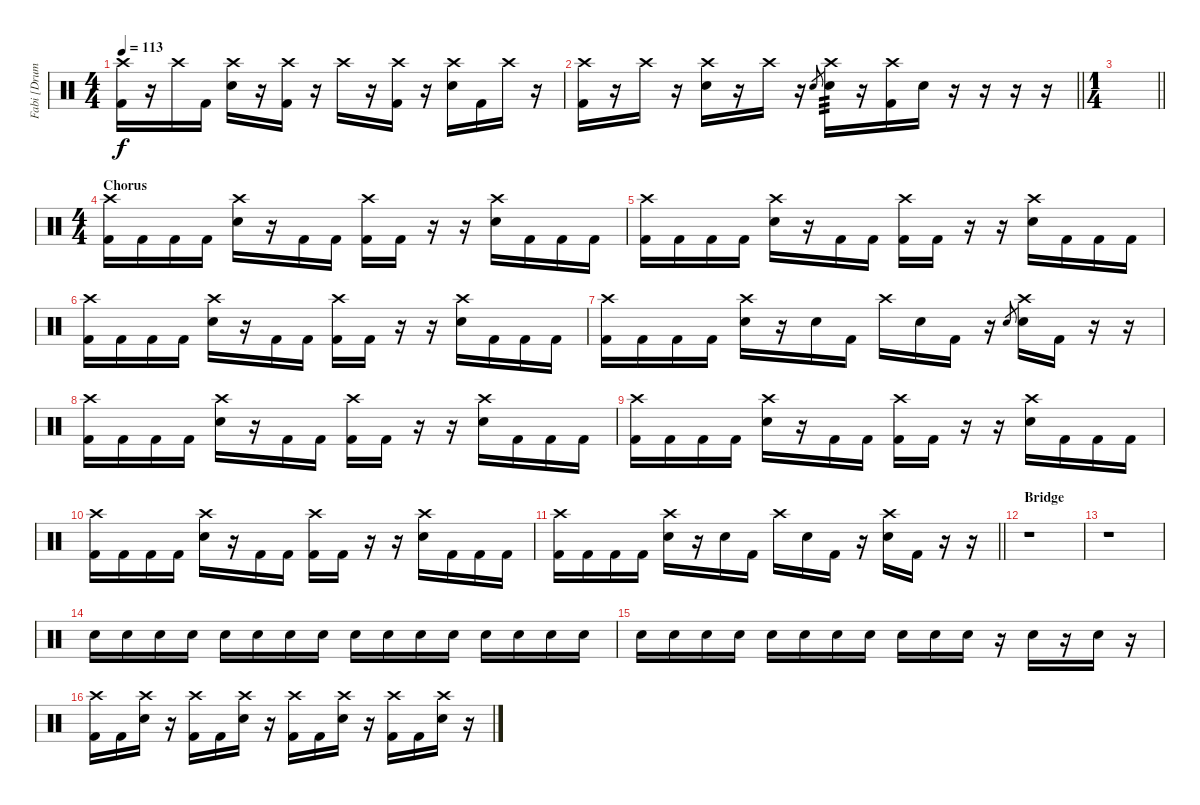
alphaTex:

\track ("Fabi [Drums]" "Fabi [Drum") {instrument percussion}
\staff {score}
\articulation defaults
\ts (4 4)
\tempo 113
\clef neutral
\ks c
("Crash high (hit)" "Kick (hit) 2").16{dy f} r.16 "Crash high (hit)".16 "Kick (hit) 2".16 ("Crash high (hit)" "Electric Snare (hit)").16 r.16 ("Crash high (hit)" "Kick (hit) 2").16 r.16 "Crash high (hit)".16 r.16 ("Crash high (hit)" "Kick (hit) 2").16 r.16 ("Crash high (hit)" "Electric Snare (hit)").16 "Kick (hit) 2".16 "Crash high (hit)".16 r.16 |
\barLineRight lightlight
("Crash high (hit)" "Kick (hit) 2").16 r.16 "Crash high (hit)".16 r.16 ("Crash high (hit)" "Electric Snare (hit)").16 r.16 "Crash high (hit)".16 r.16 "Electric Snare (hit)".8{gr} ("Crash high (hit)" "Electric Snare (hit)").16{tp 3} r.16 ("Crash high (hit)" "Kick (hit) 2").16 "Electric Snare (hit)".16 r.16 r.16 r.16 r.16 |
\ts (1 4)
\barLineRight lightlight
|
\ts (4 4)
\section ("" "Chorus")
("Crash high (hit)" "Kick (hit) 2").16 "Kick (hit) 2".16 "Kick (hit) 2".16 "Kick (hit) 2".16 ("Crash high (hit)" "Electric Snare (hit)").16 r.16 "Kick (hit) 2".16 "Kick (hit) 2".16 ("Crash high (hit)" "Kick (hit) 2").16 "Kick (hit) 2".16 r.16 r.16 ("Crash high (hit)" "Electric Snare (hit)").16 "Kick (hit) 2".16 "Kick (hit) 2".16 "Kick (hit) 2".16 |
("Crash high (hit)" "Kick (hit) 2").16 "Kick (hit) 2".16 "Kick (hit) 2".16 "Kick (hit) 2".16 ("Crash high (hit)" "Electric Snare (hit)").16 r.16 "Kick (hit) 2".16 "Kick (hit) 2".16 ("Crash high (hit)" "Kick (hit) 2").16 "Kick (hit) 2".16 r.16 r.16 ("Crash high (hit)" "Electric Snare (hit)").16 "Kick (hit) 2".16 "Kick (hit) 2".16 "Kick (hit) 2".16 |
("Crash high (hit)" "Kick (hit) 2").16 "Kick (hit) 2".16 "Kick (hit) 2".16 "Kick (hit) 2".16 ("Crash high (hit)" "Electric Snare (hit)").16 r.16 "Kick (hit) 2".16 "Kick (hit) 2".16 ("Crash high (hit)" "Kick (hit) 2").16 "Kick (hit) 2".16 r.16 r.16 ("Crash high (hit)" "Electric Snare (hit)").16 "Kick (hit) 2".16 "Kick (hit) 2".16 "Kick (hit) 2".16 |
("Crash high (hit)" "Kick (hit) 2").16 "Kick (hit) 2".16 "Kick (hit) 2".16 "Kick (hit) 2".16 ("Crash high (hit)" "Electric Snare (hit)").16 r.16 "Electric Snare (hit)".16 "Kick (hit) 2".16 "Crash high (hit)".16 "Electric Snare (hit)".16 "Kick (hit) 2".16 r.16 "Electric Snare (hit)".8{gr} ("Crash high (hit)" "Electric Snare (hit)").16 "Kick (hit) 2".16 r.16 r.16 |
("Crash high (hit)" "Kick (hit) 2").16 "Kick (hit) 2".16 "Kick (hit) 2".16 "Kick (hit) 2".16 ("Crash high (hit)" "Electric Snare (hit)").16 r.16 "Kick (hit) 2".16 "Kick (hit) 2".16 ("Crash high (hit)" "Kick (hit) 2").16 "Kick (hit) 2".16 r.16 r.16 ("Crash high (hit)" "Electric Snare (hit)").16 "Kick (hit) 2".16 "Kick (hit) 2".16 "Kick (hit) 2".16 |
("Crash high (hit)" "Kick (hit) 2").16 "Kick (hit) 2".16 "Kick (hit) 2".16 "Kick (hit) 2".16 ("Crash high (hit)" "Electric Snare (hit)").16 r.16 "Kick (hit) 2".16 "Kick (hit) 2".16 ("Crash high (hit)" "Kick (hit) 2").16 "Kick (hit) 2".16 r.16 r.16 ("Crash high (hit)" "Electric Snare (hit)").16 "Kick (hit) 2".16 "Kick (hit) 2".16 "Kick (hit) 2".16 |
("Crash high (hit)" "Kick (hit) 2").16 "Kick (hit) 2".16 "Kick (hit) 2".16 "Kick (hit) 2".16 ("Crash high (hit)" "Electric Snare (hit)").16 r.16 "Kick (hit) 2".16 "Kick (hit) 2".16 ("Crash high (hit)" "Kick (hit) 2").16 "Kick (hit) 2".16 r.16 r.16 ("Crash high (hit)" "Electric Snare (hit)").16 "Kick (hit) 2".16 "Kick (hit) 2".16 "Kick (hit) 2".16 |
\barLineRight lightlight
("Crash high (hit)" "Kick (hit) 2").16 "Kick (hit) 2".16 "Kick (hit) 2".16 "Kick (hit) 2".16 ("Crash high (hit)" "Electric Snare (hit)").16 r.16 "Electric Snare (hit)".16 "Kick (hit) 2".16 "Crash high (hit)".16 "Electric Snare (hit)".16 "Kick (hit) 2".16 r.16 ("Crash high (hit)" "Electric Snare (hit)").16 "Kick (hit) 2".16 r.16 r.16 |
\section ("" "Bridge")
r.1{volume 0} |
r.1 |
"Electric Snare (hit)".16{volume 13} "Electric Snare (hit)".16 "Electric Snare (hit)".16 "Electric Snare (hit)".16 "Electric Snare (hit)".16 "Electric Snare (hit)".16 "Electric Snare (hit)".16 "Electric Snare (hit)".16 "Electric Snare (hit)".16 "Electric Snare (hit)".16 "Electric Snare (hit)".16 "Electric Snare (hit)".16 "Electric Snare (hit)".16 "Electric Snare (hit)".16 "Electric Snare (hit)".16 "Electric Snare (hit)".16 |
"Electric Snare (hit)".16 "Electric Snare (hit)".16 "Electric Snare (hit)".16 "Electric Snare (hit)".16 "Electric Snare (hit)".16 "Electric Snare (hit)".16 "Electric Snare (hit)".16 "Electric Snare (hit)".16 "Electric Snare (hit)".16 "Electric Snare (hit)".16 "Electric Snare (hit)".16 r.16 "Electric Snare (hit)".16 r.16 "Electric Snare (hit)".16 r.16 |
("Crash high (hit)" "Kick (hit) 2").16 "Kick (hit) 2".16 ("Crash high (hit)" "Electric Snare (hit)").16 r.16 ("Crash high (hit)" "Kick (hit) 2").16 "Kick (hit) 2".16 ("Crash high (hit)" "Electric Snare (hit)").16 r.16 ("Crash high (hit)" "Kick (hit) 2").16 "Kick (hit) 2".16 ("Crash high (hit)" "Electric Snare (hit)").16 r.16 ("Crash high (hit)" "Kick (hit) 2").16 "Kick (hit) 2".16 ("Crash high (hit)" "Electric Snare (hit)").16 r.16
